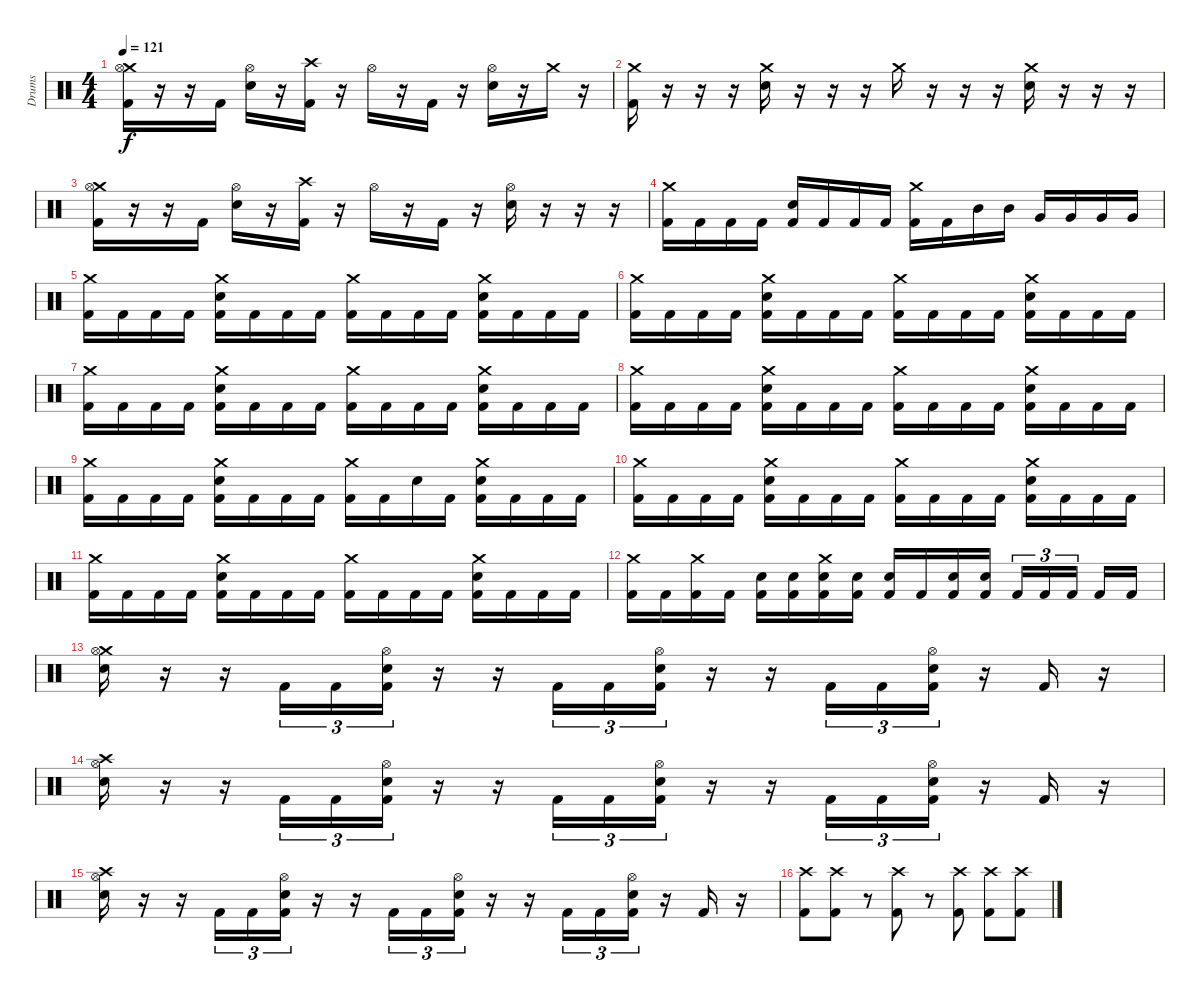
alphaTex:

\track ("Drums" "Drums") {instrument percussion}
\staff {score}
\articulation defaults
\ts (4 4)
\tempo 121
\clef neutral
\ks c
("Crash medium (hit)" "Hi-Hat (open)" "Kick (hit) 2").16{dy f} r.16 r.16 "Kick (hit) 2".16 ("Hi-Hat (open)" "Electric Snare (hit)").16 r.16 ("Crash high (hit)" "Kick (hit) 2").16 r.16 "Hi-Hat (open)".16 r.16 "Kick (hit) 2".16 r.16 ("Hi-Hat (open)" "Electric Snare (hit)").16 r.16 "Crash medium (hit)".16 r.16 |
("Crash medium (hit)" "Kick (hit) 2").16 r.16 r.16 r.16 ("Crash medium (hit)" "Electric Snare (hit)").16 r.16 r.16 r.16 "Crash medium (hit)".16 r.16 r.16 r.16 ("Crash medium (hit)" "Electric Snare (hit)").16 r.16 r.16 r.16 |
("Crash medium (hit)" "Hi-Hat (open)" "Kick (hit) 2").16 r.16 r.16 "Kick (hit) 2".16 ("Hi-Hat (open)" "Electric Snare (hit)").16 r.16 ("Crash high (hit)" "Kick (hit) 2").16 r.16 "Hi-Hat (open)".16 r.16 "Kick (hit) 2".16 r.16 ("Hi-Hat (open)" "Electric Snare (hit)").16 r.16 r.16 r.16 |
("Crash medium (hit)" "Kick (hit) 2").16 "Kick (hit) 2".16 "Kick (hit) 2".16 "Kick (hit) 2".16 ("Electric Snare (hit)" "Kick (hit) 2").16 "Kick (hit) 2".16 "Kick (hit) 2".16 "Kick (hit) 2".16 ("Crash medium (hit)" "Kick (hit) 2").16 "Kick (hit) 2".16 "Mid Tom (hit)".16 "Mid Tom (hit)".16 "Very Low Tom (hit)".16 "Very Low Tom (hit)".16 "Very Low Tom (hit)".16 "Very Low Tom (hit)".16 |
("Crash medium (hit)" "Kick (hit) 2").16 "Kick (hit) 2".16 "Kick (hit) 2".16 "Kick (hit) 2".16 ("Crash medium (hit)" "Electric Snare (hit)" "Kick (hit) 2").16 "Kick (hit) 2".16 "Kick (hit) 2".16 "Kick (hit) 2".16 ("Crash medium (hit)" "Kick (hit) 2").16 "Kick (hit) 2".16 "Kick (hit) 2".16 "Kick (hit) 2".16 ("Crash medium (hit)" "Electric Snare (hit)" "Kick (hit) 2").16 "Kick (hit) 2".16 "Kick (hit) 2".16 "Kick (hit) 2".16 |
("Crash medium (hit)" "Kick (hit) 2").16 "Kick (hit) 2".16 "Kick (hit) 2".16 "Kick (hit) 2".16 ("Crash medium (hit)" "Electric Snare (hit)" "Kick (hit) 2").16 "Kick (hit) 2".16 "Kick (hit) 2".16 "Kick (hit) 2".16 ("Crash medium (hit)" "Kick (hit) 2").16 "Kick (hit) 2".16 "Kick (hit) 2".16 "Kick (hit) 2".16 ("Crash medium (hit)" "Electric Snare (hit)" "Kick (hit) 2").16 "Kick (hit) 2".16 "Kick (hit) 2".16 "Kick (hit) 2".16 |
("Crash medium (hit)" "Kick (hit) 2").16 "Kick (hit) 2".16 "Kick (hit) 2".16 "Kick (hit) 2".16 ("Crash medium (hit)" "Electric Snare (hit)" "Kick (hit) 2").16 "Kick (hit) 2".16 "Kick (hit) 2".16 "Kick (hit) 2".16 ("Crash medium (hit)" "Kick (hit) 2").16 "Kick (hit) 2".16 "Kick (hit) 2".16 "Kick (hit) 2".16 ("Crash medium (hit)" "Electric Snare (hit)" "Kick (hit) 2").16 "Kick (hit) 2".16 "Kick (hit) 2".16 "Kick (hit) 2".16 |
("Crash medium (hit)" "Kick (hit) 2").16 "Kick (hit) 2".16 "Kick (hit) 2".16 "Kick (hit) 2".16 ("Crash medium (hit)" "Electric Snare (hit)" "Kick (hit) 2").16 "Kick (hit) 2".16 "Kick (hit) 2".16 "Kick (hit) 2".16 ("Crash medium (hit)" "Kick (hit) 2").16 "Kick (hit) 2".16 "Kick (hit) 2".16 "Kick (hit) 2".16 ("Crash medium (hit)" "Electric Snare (hit)" "Kick (hit) 2").16 "Kick (hit) 2".16 "Kick (hit) 2".16 "Kick (hit) 2".16 |
("Crash medium (hit)" "Kick (hit) 2").16 "Kick (hit) 2".16 "Kick (hit) 2".16 "Kick (hit) 2".16 ("Crash medium (hit)" "Electric Snare (hit)" "Kick (hit) 2").16 "Kick (hit) 2".16 "Kick (hit) 2".16 "Kick (hit) 2".16 ("Crash medium (hit)" "Kick (hit) 2").16 "Kick (hit) 2".16 "Snare (hit)".16 "Kick (hit) 2".16 ("Crash medium (hit)" "Electric Snare (hit)" "Kick (hit) 2").16 "Kick (hit) 2".16 "Kick (hit) 2".16 "Kick (hit) 2".16 |
("Crash medium (hit)" "Kick (hit) 2").16 "Kick (hit) 2".16 "Kick (hit) 2".16 "Kick (hit) 2".16 ("Crash medium (hit)" "Electric Snare (hit)" "Kick (hit) 2").16 "Kick (hit) 2".16 "Kick (hit) 2".16 "Kick (hit) 2".16 ("Crash medium (hit)" "Kick (hit) 2").16 "Kick (hit) 2".16 "Kick (hit) 2".16 "Kick (hit) 2".16 ("Crash medium (hit)" "Electric Snare (hit)" "Kick (hit) 2").16 "Kick (hit) 2".16 "Kick (hit) 2".16 "Kick (hit) 2".16 |
("Crash medium (hit)" "Kick (hit) 2").16 "Kick (hit) 2".16 "Kick (hit) 2".16 "Kick (hit) 2".16 ("Crash medium (hit)" "Electric Snare (hit)" "Kick (hit) 2").16 "Kick (hit) 2".16 "Kick (hit) 2".16 "Kick (hit) 2".16 ("Crash medium (hit)" "Kick (hit) 2").16 "Kick (hit) 2".16 "Kick (hit) 2".16 "Kick (hit) 2".16 ("Crash medium (hit)" "Electric Snare (hit)" "Kick (hit) 2").16 "Kick (hit) 2".16 "Kick (hit) 2".16 "Kick (hit) 2".16 |
("Crash medium (hit)" "Kick (hit) 2").16 "Kick (hit) 2".16 ("Crash medium (hit)" "Kick (hit) 2").16 "Kick (hit) 2".16 ("Electric Snare (hit)" "Kick (hit) 2").16 ("Electric Snare (hit)" "Kick (hit) 2").16 ("Crash medium (hit)" "Electric Snare (hit)" "Kick (hit) 2").16 ("Electric Snare (hit)" "Kick (hit) 2").16 ("Electric Snare (hit)" "Kick (hit) 2").16 "Kick (hit) 2".16 ("Electric Snare (hit)" "Kick (hit) 2").16 ("Electric Snare (hit)" "Kick (hit) 2").16 "Kick (hit) 2".16{tu (3 2)} "Kick (hit) 2".16{tu (3 2)} "Kick (hit) 2".16{tu (3 2)} "Kick (hit) 2".16 "Kick (hit) 2".16 |
("Crash medium (hit)" "Hi-Hat (open)" "Electric Snare (hit)").16 r.16 r.16 "Kick (hit) 2".16{tu (3 2)} "Kick (hit) 2".16{tu (3 2)} ("Hi-Hat (open)" "Electric Snare (hit)" "Kick (hit) 2").16{tu (3 2)} r.16 r.16 "Kick (hit) 2".16{tu (3 2)} "Kick (hit) 2".16{tu (3 2)} ("Hi-Hat (open)" "Electric Snare (hit)" "Kick (hit) 2").16{tu (3 2)} r.16 r.16 "Kick (hit) 2".16{tu (3 2)} "Kick (hit) 2".16{tu (3 2)} ("Hi-Hat (open)" "Electric Snare (hit)" "Kick (hit) 2").16{tu (3 2)} r.16 "Kick (hit) 2".16 r.16 |
("Crash high (hit)" "Hi-Hat (open)" "Electric Snare (hit)").16 r.16 r.16 "Kick (hit) 2".16{tu (3 2)} "Kick (hit) 2".16{tu (3 2)} ("Hi-Hat (open)" "Electric Snare (hit)" "Kick (hit) 2").16{tu (3 2)} r.16 r.16 "Kick (hit) 2".16{tu (3 2)} "Kick (hit) 2".16{tu (3 2)} ("Hi-Hat (open)" "Electric Snare (hit)" "Kick (hit) 2").16{tu (3 2)} r.16 r.16 "Kick (hit) 2".16{tu (3 2)} "Kick (hit) 2".16{tu (3 2)} ("Hi-Hat (open)" "Electric Snare (hit)" "Kick (hit) 2").16{tu (3 2)} r.16 "Kick (hit) 2".16 r.16 |
("Crash high (hit)" "Hi-Hat (open)" "Electric Snare (hit)").16 r.16 r.16 "Kick (hit) 2".16{tu (3 2)} "Kick (hit) 2".16{tu (3 2)} ("Hi-Hat (open)" "Electric Snare (hit)" "Kick (hit) 2").16{tu (3 2)} r.16 r.16 "Kick (hit) 2".16{tu (3 2)} "Kick (hit) 2".16{tu (3 2)} ("Hi-Hat (open)" "Electric Snare (hit)" "Kick (hit) 2").16{tu (3 2)} r.16 r.16 "Kick (hit) 2".16{tu (3 2)} "Kick (hit) 2".16{tu (3 2)} ("Hi-Hat (open)" "Electric Snare (hit)" "Kick (hit) 2").16{tu (3 2)} r.16 "Kick (hit) 2".16 r.16 |
("Crash high (hit)" "Kick (hit) 2").8 ("Crash high (hit)" "Kick (hit) 2").8 r.8 ("Crash high (hit)" "Kick (hit) 2").8 r.8 ("Crash high (hit)" "Kick (hit) 2").8 ("Crash high (hit)" "Kick (hit) 2").8 ("Crash high (hit)" "Kick (hit) 2").8
